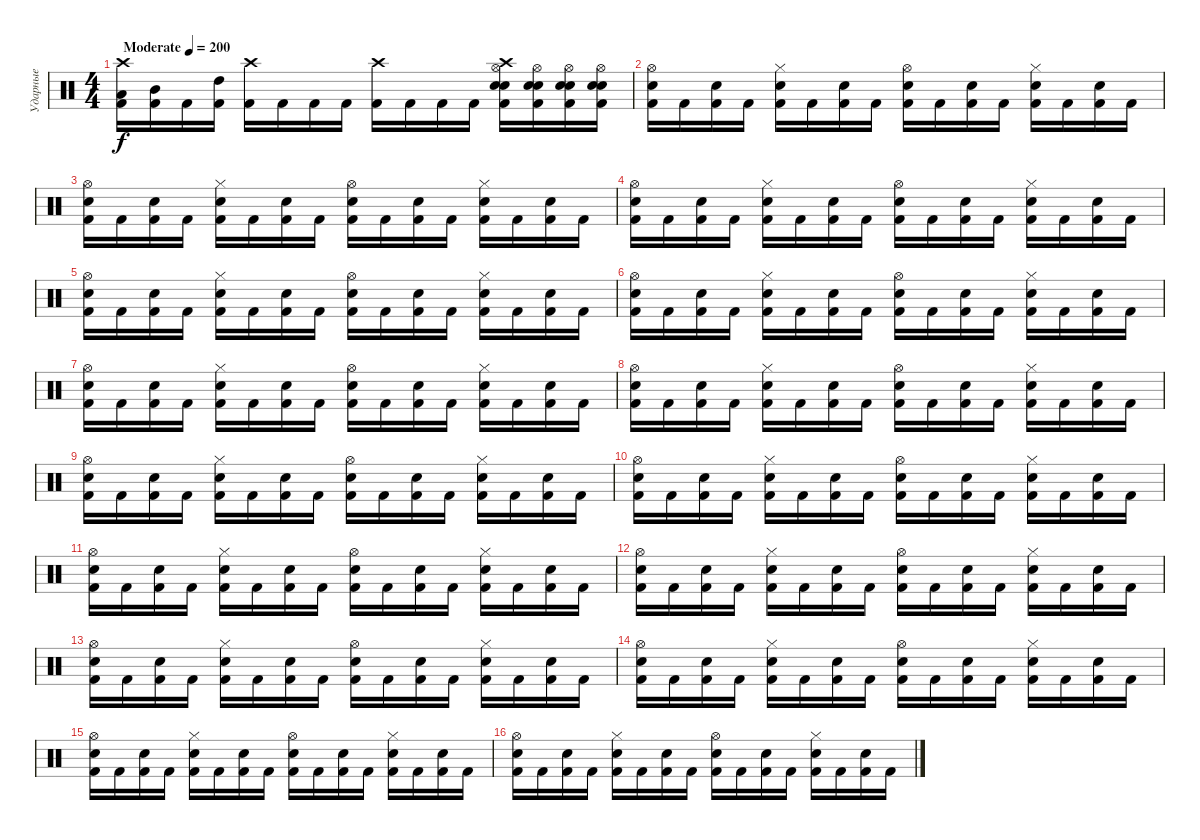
\track ("Ударные" "Ударные") {instrument percussion}
\staff {score}
\articulation defaults
\ts (4 4)
\tempo (200 "Moderate")
\clef neutral
\ks c
("Kick (hit) 2" "Low Tom (hit)" "Crash high (hit)").16{dy f} ("Kick (hit) 2" "Mid Tom (hit)").16 "Kick (hit) 2".16 ("Kick (hit) 2" "High Tom (hit)").16 ("Kick (hit) 2" "Crash high (hit)").16 "Kick (hit) 2".16 "Kick (hit) 2".16 "Kick (hit) 2".16 ("Kick (hit) 2" "Crash high (hit)").16 "Kick (hit) 2".16 "Kick (hit) 2".16 "Kick (hit) 2".16 ("Kick (hit) 2" "Snare (hit) 2" "Electric Snare (hit)" "Crash high (hit)" "Hi-Hat (open)").16 ("Kick (hit) 2" "Snare (hit) 2" "Electric Snare (hit)" "Hi-Hat (open)").16 ("Kick (hit) 2" "Snare (hit) 2" "Electric Snare (hit)" "Hi-Hat (open)").16 ("Kick (hit) 2" "Snare (hit) 2" "Electric Snare (hit)" "Hi-Hat (open)").16 |
("Kick (hit) 2" "Snare (hit) 2" "Hi-Hat (open)").16 "Kick (hit) 2".16 ("Kick (hit) 2" "Snare (hit) 2").16 "Kick (hit) 2".16 ("Kick (hit) 2" "Hi-Hat (closed)" "Snare (hit) 2").16 "Kick (hit) 2".16 ("Kick (hit) 2" "Snare (hit) 2").16 "Kick (hit) 2".16 ("Kick (hit) 2" "Snare (hit) 2" "Hi-Hat (open)").16 "Kick (hit) 2".16 ("Kick (hit) 2" "Snare (hit) 2").16 "Kick (hit) 2".16 ("Kick (hit) 2" "Hi-Hat (closed)" "Snare (hit) 2").16 "Kick (hit) 2".16 ("Kick (hit) 2" "Snare (hit) 2").16 "Kick (hit) 2".16 |
("Kick (hit) 2" "Snare (hit) 2" "Hi-Hat (open)").16 "Kick (hit) 2".16 ("Kick (hit) 2" "Snare (hit) 2").16 "Kick (hit) 2".16 ("Kick (hit) 2" "Hi-Hat (closed)" "Snare (hit) 2").16 "Kick (hit) 2".16 ("Kick (hit) 2" "Snare (hit) 2").16 "Kick (hit) 2".16 ("Kick (hit) 2" "Snare (hit) 2" "Hi-Hat (open)").16 "Kick (hit) 2".16 ("Kick (hit) 2" "Snare (hit) 2").16 "Kick (hit) 2".16 ("Kick (hit) 2" "Hi-Hat (closed)" "Snare (hit) 2").16 "Kick (hit) 2".16 ("Kick (hit) 2" "Snare (hit) 2").16 "Kick (hit) 2".16 |
("Kick (hit) 2" "Snare (hit) 2" "Hi-Hat (open)").16 "Kick (hit) 2".16 ("Kick (hit) 2" "Snare (hit) 2").16 "Kick (hit) 2".16 ("Kick (hit) 2" "Hi-Hat (closed)" "Snare (hit) 2").16 "Kick (hit) 2".16 ("Kick (hit) 2" "Snare (hit) 2").16 "Kick (hit) 2".16 ("Kick (hit) 2" "Snare (hit) 2" "Hi-Hat (open)").16 "Kick (hit) 2".16 ("Kick (hit) 2" "Snare (hit) 2").16 "Kick (hit) 2".16 ("Kick (hit) 2" "Hi-Hat (closed)" "Snare (hit) 2").16 "Kick (hit) 2".16 ("Kick (hit) 2" "Snare (hit) 2").16 "Kick (hit) 2".16 |
("Kick (hit) 2" "Snare (hit) 2" "Hi-Hat (open)").16 "Kick (hit) 2".16 ("Kick (hit) 2" "Snare (hit) 2").16 "Kick (hit) 2".16 ("Kick (hit) 2" "Hi-Hat (closed)" "Snare (hit) 2").16 "Kick (hit) 2".16 ("Kick (hit) 2" "Snare (hit) 2").16 "Kick (hit) 2".16 ("Kick (hit) 2" "Snare (hit) 2" "Hi-Hat (open)").16 "Kick (hit) 2".16 ("Kick (hit) 2" "Snare (hit) 2").16 "Kick (hit) 2".16 ("Kick (hit) 2" "Hi-Hat (closed)" "Snare (hit) 2").16 "Kick (hit) 2".16 ("Kick (hit) 2" "Snare (hit) 2").16 "Kick (hit) 2".16 |
("Kick (hit) 2" "Snare (hit) 2" "Hi-Hat (open)").16 "Kick (hit) 2".16 ("Kick (hit) 2" "Snare (hit) 2").16 "Kick (hit) 2".16 ("Kick (hit) 2" "Hi-Hat (closed)" "Snare (hit) 2").16 "Kick (hit) 2".16 ("Kick (hit) 2" "Snare (hit) 2").16 "Kick (hit) 2".16 ("Kick (hit) 2" "Snare (hit) 2" "Hi-Hat (open)").16 "Kick (hit) 2".16 ("Kick (hit) 2" "Snare (hit) 2").16 "Kick (hit) 2".16 ("Kick (hit) 2" "Hi-Hat (closed)" "Snare (hit) 2").16 "Kick (hit) 2".16 ("Kick (hit) 2" "Snare (hit) 2").16 "Kick (hit) 2".16 |
("Kick (hit) 2" "Snare (hit) 2" "Hi-Hat (open)").16 "Kick (hit) 2".16 ("Kick (hit) 2" "Snare (hit) 2").16 "Kick (hit) 2".16 ("Kick (hit) 2" "Hi-Hat (closed)" "Snare (hit) 2").16 "Kick (hit) 2".16 ("Kick (hit) 2" "Snare (hit) 2").16 "Kick (hit) 2".16 ("Kick (hit) 2" "Snare (hit) 2" "Hi-Hat (open)").16 "Kick (hit) 2".16 ("Kick (hit) 2" "Snare (hit) 2").16 "Kick (hit) 2".16 ("Kick (hit) 2" "Hi-Hat (closed)" "Snare (hit) 2").16 "Kick (hit) 2".16 ("Kick (hit) 2" "Snare (hit) 2").16 "Kick (hit) 2".16 |
("Kick (hit) 2" "Snare (hit) 2" "Hi-Hat (open)").16 "Kick (hit) 2".16 ("Kick (hit) 2" "Snare (hit) 2").16 "Kick (hit) 2".16 ("Kick (hit) 2" "Hi-Hat (closed)" "Snare (hit) 2").16 "Kick (hit) 2".16 ("Kick (hit) 2" "Snare (hit) 2").16 "Kick (hit) 2".16 ("Kick (hit) 2" "Snare (hit) 2" "Hi-Hat (open)").16 "Kick (hit) 2".16 ("Kick (hit) 2" "Snare (hit) 2").16 "Kick (hit) 2".16 ("Kick (hit) 2" "Hi-Hat (closed)" "Snare (hit) 2").16 "Kick (hit) 2".16 ("Kick (hit) 2" "Snare (hit) 2").16 "Kick (hit) 2".16 |
("Kick (hit) 2" "Snare (hit) 2" "Hi-Hat (open)").16 "Kick (hit) 2".16 ("Kick (hit) 2" "Snare (hit) 2").16 "Kick (hit) 2".16 ("Kick (hit) 2" "Hi-Hat (closed)" "Snare (hit) 2").16 "Kick (hit) 2".16 ("Kick (hit) 2" "Snare (hit) 2").16 "Kick (hit) 2".16 ("Kick (hit) 2" "Snare (hit) 2" "Hi-Hat (open)").16 "Kick (hit) 2".16 ("Kick (hit) 2" "Snare (hit) 2").16 "Kick (hit) 2".16 ("Kick (hit) 2" "Hi-Hat (closed)" "Snare (hit) 2").16 "Kick (hit) 2".16 ("Kick (hit) 2" "Snare (hit) 2").16 "Kick (hit) 2".16 |
("Kick (hit) 2" "Snare (hit) 2" "Hi-Hat (open)").16 "Kick (hit) 2".16 ("Kick (hit) 2" "Snare (hit) 2").16 "Kick (hit) 2".16 ("Kick (hit) 2" "Hi-Hat (closed)" "Snare (hit) 2").16 "Kick (hit) 2".16 ("Kick (hit) 2" "Snare (hit) 2").16 "Kick (hit) 2".16 ("Kick (hit) 2" "Snare (hit) 2" "Hi-Hat (open)").16 "Kick (hit) 2".16 ("Kick (hit) 2" "Snare (hit) 2").16 "Kick (hit) 2".16 ("Kick (hit) 2" "Hi-Hat (closed)" "Snare (hit) 2").16 "Kick (hit) 2".16 ("Kick (hit) 2" "Snare (hit) 2").16 "Kick (hit) 2".16 |
("Kick (hit) 2" "Snare (hit) 2" "Hi-Hat (open)").16 "Kick (hit) 2".16 ("Kick (hit) 2" "Snare (hit) 2").16 "Kick (hit) 2".16 ("Kick (hit) 2" "Hi-Hat (closed)" "Snare (hit) 2").16 "Kick (hit) 2".16 ("Kick (hit) 2" "Snare (hit) 2").16 "Kick (hit) 2".16 ("Kick (hit) 2" "Snare (hit) 2" "Hi-Hat (open)").16 "Kick (hit) 2".16 ("Kick (hit) 2" "Snare (hit) 2").16 "Kick (hit) 2".16 ("Kick (hit) 2" "Hi-Hat (closed)" "Snare (hit) 2").16 "Kick (hit) 2".16 ("Kick (hit) 2" "Snare (hit) 2").16 "Kick (hit) 2".16 |
("Kick (hit) 2" "Snare (hit) 2" "Hi-Hat (open)").16 "Kick (hit) 2".16 ("Kick (hit) 2" "Snare (hit) 2").16 "Kick (hit) 2".16 ("Kick (hit) 2" "Hi-Hat (closed)" "Snare (hit) 2").16 "Kick (hit) 2".16 ("Kick (hit) 2" "Snare (hit) 2").16 "Kick (hit) 2".16 ("Kick (hit) 2" "Snare (hit) 2" "Hi-Hat (open)").16 "Kick (hit) 2".16 ("Kick (hit) 2" "Snare (hit) 2").16 "Kick (hit) 2".16 ("Kick (hit) 2" "Hi-Hat (closed)" "Snare (hit) 2").16 "Kick (hit) 2".16 ("Kick (hit) 2" "Snare (hit) 2").16 "Kick (hit) 2".16 |
("Kick (hit) 2" "Snare (hit) 2" "Hi-Hat (open)").16 "Kick (hit) 2".16 ("Kick (hit) 2" "Snare (hit) 2").16 "Kick (hit) 2".16 ("Kick (hit) 2" "Hi-Hat (closed)" "Snare (hit) 2").16 "Kick (hit) 2".16 ("Kick (hit) 2" "Snare (hit) 2").16 "Kick (hit) 2".16 ("Kick (hit) 2" "Snare (hit) 2" "Hi-Hat (open)").16 "Kick (hit) 2".16 ("Kick (hit) 2" "Snare (hit) 2").16 "Kick (hit) 2".16 ("Kick (hit) 2" "Hi-Hat (closed)" "Snare (hit) 2").16 "Kick (hit) 2".16 ("Kick (hit) 2" "Snare (hit) 2").16 "Kick (hit) 2".16 |
("Kick (hit) 2" "Snare (hit) 2" "Hi-Hat (open)").16 "Kick (hit) 2".16 ("Kick (hit) 2" "Snare (hit) 2").16 "Kick (hit) 2".16 ("Kick (hit) 2" "Hi-Hat (closed)" "Snare (hit) 2").16 "Kick (hit) 2".16 ("Kick (hit) 2" "Snare (hit) 2").16 "Kick (hit) 2".16 ("Kick (hit) 2" "Snare (hit) 2" "Hi-Hat (open)").16 "Kick (hit) 2".16 ("Kick (hit) 2" "Snare (hit) 2").16 "Kick (hit) 2".16 ("Kick (hit) 2" "Hi-Hat (closed)" "Snare (hit) 2").16 "Kick (hit) 2".16 ("Kick (hit) 2" "Snare (hit) 2").16 "Kick (hit) 2".16 |
("Kick (hit) 2" "Snare (hit) 2" "Hi-Hat (open)").16 "Kick (hit) 2".16 ("Kick (hit) 2" "Snare (hit) 2").16 "Kick (hit) 2".16 ("Kick (hit) 2" "Hi-Hat (closed)" "Snare (hit) 2").16 "Kick (hit) 2".16 ("Kick (hit) 2" "Snare (hit) 2").16 "Kick (hit) 2".16 ("Kick (hit) 2" "Snare (hit) 2" "Hi-Hat (open)").16 "Kick (hit) 2".16 ("Kick (hit) 2" "Snare (hit) 2").16 "Kick (hit) 2".16 ("Kick (hit) 2" "Hi-Hat (closed)" "Snare (hit) 2").16 "Kick (hit) 2".16 ("Kick (hit) 2" "Snare (hit) 2").16 "Kick (hit) 2".16 |
("Kick (hit) 2" "Snare (hit) 2" "Hi-Hat (open)").16 "Kick (hit) 2".16 ("Kick (hit) 2" "Snare (hit) 2").16 "Kick (hit) 2".16 ("Kick (hit) 2" "Hi-Hat (closed)" "Snare (hit) 2").16 "Kick (hit) 2".16 ("Kick (hit) 2" "Snare (hit) 2").16 "Kick (hit) 2".16 ("Kick (hit) 2" "Snare (hit) 2" "Hi-Hat (open)").16 "Kick (hit) 2".16 ("Kick (hit) 2" "Snare (hit) 2").16 "Kick (hit) 2".16 ("Kick (hit) 2" "Hi-Hat (closed)" "Snare (hit) 2").16 "Kick (hit) 2".16 ("Kick (hit) 2" "Snare (hit) 2").16 "Kick (hit) 2".16
